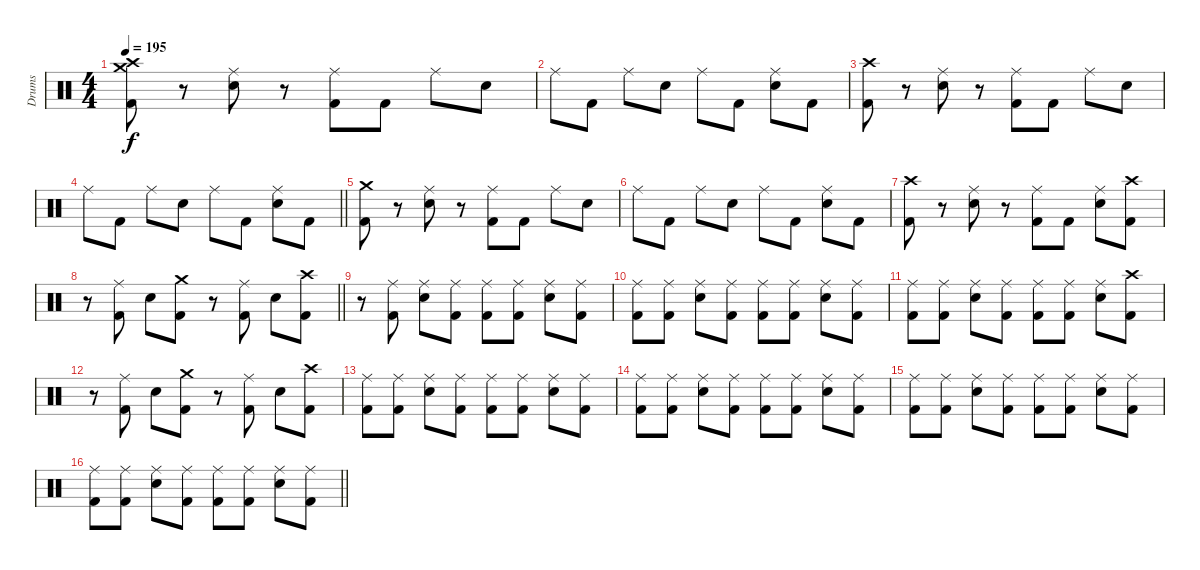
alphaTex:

\track ("Drums" "Drums") {instrument percussion}
\staff {score}
\articulation defaults
\ts (4 4)
\tempo 195
\clef neutral
\ks c
("Crash high (hit)" "Crash medium (hit)" "Kick (hit) 2").8{dy f} r.8 ("Ride (middle)" "Electric Snare (hit)").8 r.8 ("Ride (middle)" "Kick (hit) 2").8 "Kick (hit) 2".8 "Ride (middle)".8 "Electric Snare (hit)".8 |
"Ride (middle)".8 "Kick (hit) 2".8 "Ride (middle)".8 "Electric Snare (hit)".8 "Ride (middle)".8 "Kick (hit) 2".8 ("Ride (middle)" "Electric Snare (hit)").8 "Kick (hit) 2".8 |
("Crash high (hit)" "Kick (hit) 2").8 r.8 ("Ride (middle)" "Electric Snare (hit)").8 r.8 ("Ride (middle)" "Kick (hit) 2").8 "Kick (hit) 2".8 "Ride (middle)".8 "Electric Snare (hit)".8 |
\barLineRight lightlight "Ride (middle)".8 "Kick (hit) 2".8 "Ride (middle)".8 "Electric Snare (hit)".8 "Ride (middle)".8 "Kick (hit) 2".8
("Ride (middle)" "Electric Snare (hit)").8 "Kick (hit) 2".8 |
("Crash medium (hit)" "Kick (hit) 2").8 r.8 ("Ride (middle)" "Electric Snare (hit)").8 r.8 ("Ride (middle)" "Kick (hit) 2").8 "Kick (hit) 2".8 "Ride (middle)".8 "Electric Snare (hit)".8 |
"Ride (middle)".8 "Kick (hit) 2".8 "Ride (middle)".8 "Electric Snare (hit)".8 "Ride (middle)".8 "Kick (hit) 2".8 ("Ride (middle)" "Electric Snare (hit)").8 "Kick (hit) 2".8 |
("Crash high (hit)" "Kick (hit) 2").8 r.8 ("Ride (middle)" "Electric Snare (hit)").8 r.8 ("Ride (middle)" "Kick (hit) 2").8 "Kick (hit) 2".8 ("Ride (middle)" "Electric Snare (hit)").8 ("Crash high (hit)" "Kick (hit) 2").8 |
\barLineRight lightlight
r.8 ("Ride (middle)" "Kick (hit) 2").8 "Electric Snare (hit)".8 ("Crash medium (hit)" "Kick (hit) 2").8 r.8 ("Ride (middle)" "Kick (hit) 2").8 "Electric Snare (hit)".8 ("Crash high (hit)" "Kick (hit) 2").8 |
r.8 ("Ride (middle)" "Kick (hit) 2").8 ("Ride (middle)" "Electric Snare (hit)").8 ("Ride (middle)" "Kick (hit) 2").8 ("Ride (middle)" "Kick (hit) 2").8 ("Ride (middle)" "Kick (hit) 2").8 ("Ride (middle)" "Electric Snare (hit)").8 ("Ride (middle)" "Kick (hit) 2").8 |
("Ride (middle)" "Kick (hit) 2").8 ("Ride (middle)" "Kick (hit) 2").8 ("Ride (middle)" "Electric Snare (hit)").8 ("Ride (middle)" "Kick (hit) 2").8 ("Ride (middle)" "Kick (hit) 2").8 ("Ride (middle)" "Kick (hit) 2").8 ("Ride (middle)" "Electric Snare (hit)").8 ("Ride (middle)" "Kick (hit) 2").8 |
("Ride (middle)" "Kick (hit) 2").8 ("Ride (middle)" "Kick (hit) 2").8 ("Ride (middle)" "Electric Snare (hit)").8 ("Ride (middle)" "Kick (hit) 2").8 ("Ride (middle)" "Kick (hit) 2").8 ("Ride (middle)" "Kick (hit) 2").8 ("Ride (middle)" "Electric Snare (hit)").8 ("Crash high (hit)" "Kick (hit) 2").8 |
r.8 ("Ride (middle)" "Kick (hit) 2").8 "Electric Snare (hit)".8 ("Crash medium (hit)" "Kick (hit) 2").8 r.8 ("Ride (middle)" "Kick (hit) 2").8 "Electric Snare (hit)".8 ("Crash high (hit)" "Kick (hit) 2").8 |
("Ride (middle)" "Kick (hit) 2").8 ("Ride (middle)" "Kick (hit) 2").8 ("Ride (middle)" "Electric Snare (hit)").8 ("Ride (middle)" "Kick (hit) 2").8 ("Ride (middle)" "Kick (hit) 2").8 ("Ride (middle)" "Kick (hit) 2").8 ("Ride (middle)" "Electric Snare (hit)").8 ("Ride (middle)" "Kick (hit) 2").8 |
("Ride (middle)" "Kick (hit) 2").8 ("Ride (middle)" "Kick (hit) 2").8 ("Ride (middle)" "Electric Snare (hit)").8 ("Ride (middle)" "Kick (hit) 2").8 ("Ride (middle)" "Kick (hit) 2").8 ("Ride (middle)" "Kick (hit) 2").8 ("Ride (middle)" "Electric Snare (hit)").8 ("Ride (middle)" "Kick (hit) 2").8 |
("Ride (middle)" "Kick (hit) 2").8 ("Ride (middle)" "Kick (hit) 2").8 ("Ride (middle)" "Electric Snare (hit)").8 ("Ride (middle)" "Kick (hit) 2").8 ("Ride (middle)" "Kick (hit) 2").8 ("Ride (middle)" "Kick (hit) 2").8 ("Ride (middle)" "Electric Snare (hit)").8 ("Ride (middle)" "Kick (hit) 2").8 |
\barLineRight lightlight
("Ride (middle)" "Kick (hit) 2").8 ("Ride (middle)" "Kick (hit) 2").8 ("Ride (middle)" "Electric Snare (hit)").8 ("Ride (middle)" "Kick (hit) 2").8 ("Ride (middle)" "Kick (hit) 2").8 ("Ride (middle)" "Kick (hit) 2").8 ("Ride (middle)" "Electric Snare (hit)").8 ("Ride (middle)" "Kick (hit) 2").8
